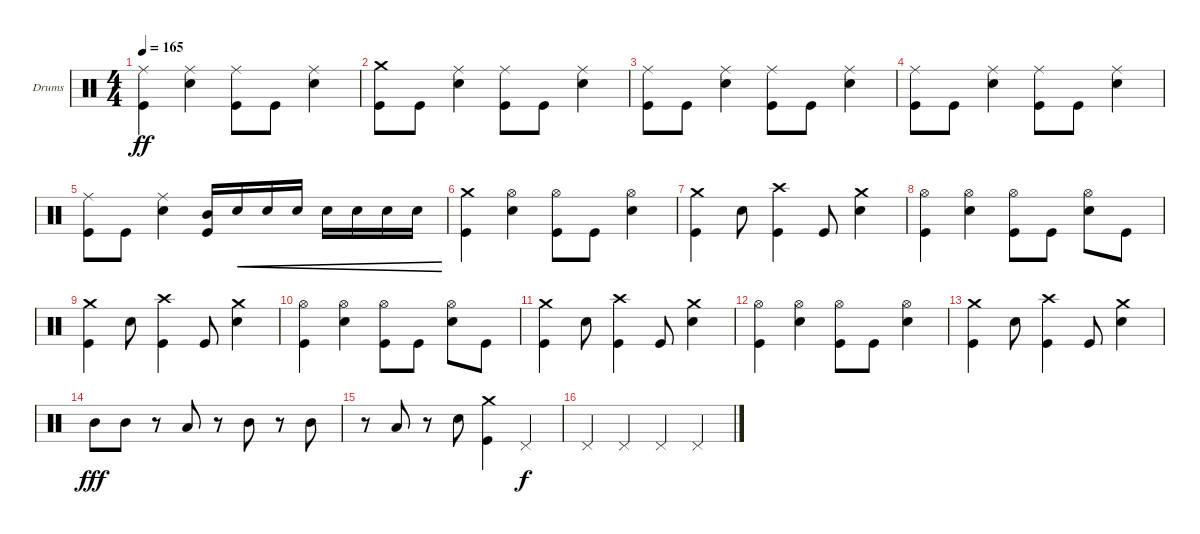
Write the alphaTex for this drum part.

\bracketExtendMode groupsimilarinstruments
\firstSystemTrackNameOrientation horizontal
\otherSystemsTrackNameOrientation horizontal
\track ("Drumkit" "Drums") {instrument percussion}
\staff {score}
\articulation defaults
\ts (4 4)
\tempo 165
\clef neutral
\ks c
("Kick (hit)" "Ride (middle)").4{dy ff} ("Snare (hit) 2" "Ride (middle)").4 ("Kick (hit)" "Ride (middle)").8 "Kick (hit)".8 ("Ride (middle)" "Snare (hit) 2").4 |
("Kick (hit)" "Crash medium (hit)").8 "Kick (hit)".8 ("Ride (middle)" "Snare (hit) 2").4 ("Ride (middle)" "Kick (hit)").8 "Kick (hit)".8 ("Ride (middle)" "Snare (hit) 2").4 |
("Ride (middle)" "Kick (hit)").8 "Kick (hit)".8 ("Ride (middle)" "Snare (hit) 2").4 ("Ride (middle)" "Kick (hit)").8 "Kick (hit)".8 ("Ride (middle)" "Snare (hit) 2").4 |
("Ride (middle)" "Kick (hit)").8 "Kick (hit)".8 ("Ride (middle)" "Snare (hit) 2").4 ("Kick (hit)" "Ride (middle)").8 "Kick (hit)".8 ("Ride (middle)" "Snare (hit) 2").4 |
("Ride (middle)" "Kick (hit)").8 "Kick (hit)".8 ("Ride (middle)" "Snare (hit) 2").4 ("Kick (hit)" "Mid Tom (hit)").16 "Snare (hit) 2".16{cre} "Snare (hit) 2".16{cre} "Snare (hit) 2".16{cre} "Snare (hit) 2".16{cre} "Snare (hit) 2".16{cre} "Snare (hit) 2".16{cre} "Snare (hit) 2".16{cre} |
("Crash medium (hit)" "Kick (hit)").4 ("Hi-Hat (open)" "Snare (hit) 2").4 ("Hi-Hat (open)" "Kick (hit)").8 "Kick (hit)".8 ("Snare (hit) 2" "Hi-Hat (open)").4 |
("Kick (hit)" "Crash medium (hit)").4 "Snare (hit) 2".8 ("Kick (hit)" "Crash high (hit)").4 "Kick (hit)".8 ("Snare (hit) 2" "Crash medium (hit)").4 |
("Hi-Hat (open)" "Kick (hit)").4 ("Hi-Hat (open)" "Snare (hit) 2").4 ("Hi-Hat (open)" "Kick (hit)").8 "Kick (hit)".8 ("Snare (hit) 2" "Hi-Hat (open)").8 "Kick (hit)".8 |
("Kick (hit)" "Crash medium (hit)").4 "Snare (hit) 2".8 ("Kick (hit)" "Crash high (hit)").4 "Kick (hit)".8 ("Snare (hit) 2" "Crash medium (hit)").4 |
("Hi-Hat (open)" "Kick (hit)").4 ("Hi-Hat (open)" "Snare (hit) 2").4 ("Hi-Hat (open)" "Kick (hit)").8 "Kick (hit)".8 ("Snare (hit) 2" "Hi-Hat (open)").8 "Kick (hit)".8 |
("Kick (hit)" "Crash medium (hit)").4 "Snare (hit) 2".8 ("Kick (hit)" "Crash high (hit)").4 "Kick (hit)".8 ("Snare (hit) 2" "Crash medium (hit)").4 |
("Kick (hit)" "Hi-Hat (open)").4 ("Hi-Hat (open)" "Snare (hit) 2").4 ("Hi-Hat (open)" "Kick (hit)").8 "Kick (hit)".8 ("Snare (hit) 2" "Hi-Hat (open)").4 |
("Kick (hit)" "Crash medium (hit)").4 "Snare (hit) 2".8 ("Kick (hit)" "Crash high (hit)").4 "Kick (hit)".8 ("Snare (hit) 2" "Crash medium (hit)").4 |
"Mid Tom (hit)".8{dy fff} "Mid Tom (hit)".8 r.8 "Low Tom (hit)".8 r.8 "Mid Tom (hit)".8 r.8 "Mid Tom (hit)".8 |
r.8 "Low Tom (hit)".8 r.8 "Snare (hit) 2".8 ("Crash medium (hit)" "Kick (hit)").4 "Pedal Hi-Hat (hit)".4{dy f} |
"Pedal Hi-Hat (hit)".4 "Pedal Hi-Hat (hit)".4 "Pedal Hi-Hat (hit)".4 "Pedal Hi-Hat (hit)".4
